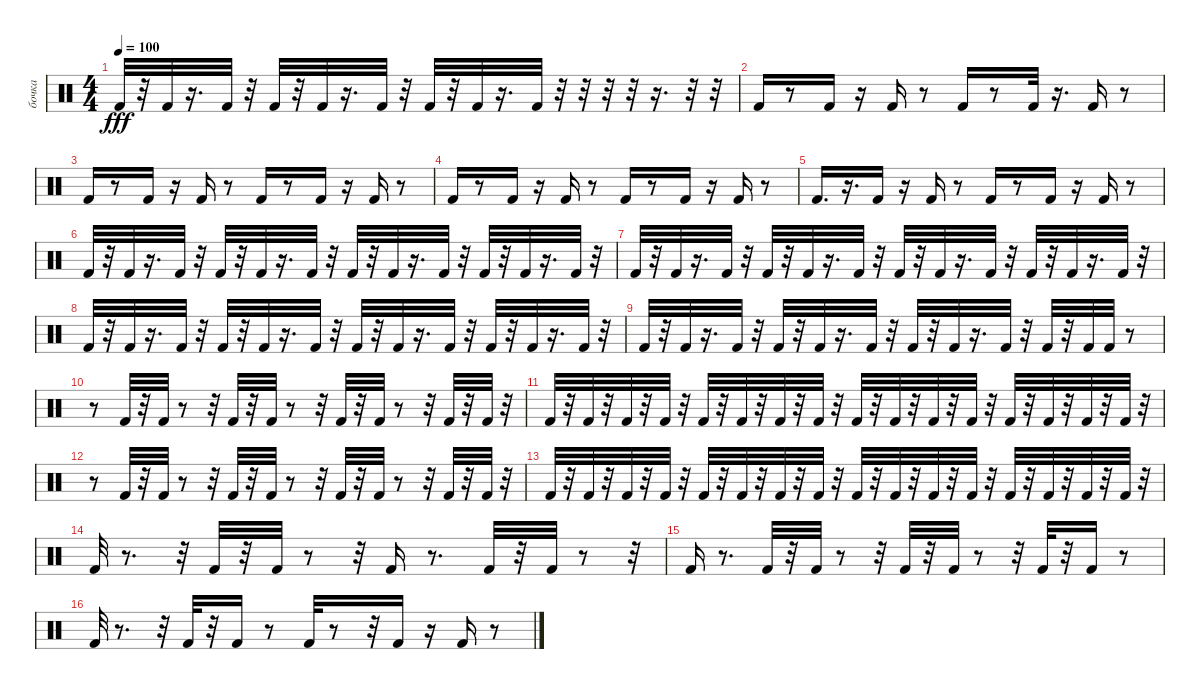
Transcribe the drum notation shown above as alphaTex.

\track ("бочка" "бочка") {instrument percussion}
\staff {score}
\articulation defaults
\ts (4 4)
\tempo 100
\clef neutral
\ks c "Kick (hit) 2".32{dy fff}
r.32 "Kick (hit) 2".32 r.16{d} "Kick (hit) 2".32 r.32 "Kick (hit) 2".32 r.32 "Kick (hit) 2".32 r.16{d} "Kick (hit) 2".32 r.32 "Kick (hit) 2".32 r.32 "Kick (hit) 2".32 r.16{d} "Kick (hit) 2".32 r.32 r.32 r.32 r.32 r.16{d} r.32 r.32 |
"Kick (hit) 2".16 r.8 "Kick (hit) 2".16 r.16 "Kick (hit) 2".16 r.8 "Kick (hit) 2".16 r.8 "Kick (hit) 2".32 r.16{d} "Kick (hit) 2".16 r.8 |
"Kick (hit) 2".16 r.8 "Kick (hit) 2".16 r.16 "Kick (hit) 2".16 r.8 "Kick (hit) 2".16 r.8 "Kick (hit) 2".16 r.16 "Kick (hit) 2".16 r.8 |
"Kick (hit) 2".16 r.8 "Kick (hit) 2".16 r.16 "Kick (hit) 2".16 r.8 "Kick (hit) 2".16 r.8 "Kick (hit) 2".16 r.16 "Kick (hit) 2".16 r.8 |
"Kick (hit) 2".16{d} r.16{d} "Kick (hit) 2".16 r.16 "Kick (hit) 2".16 r.8 "Kick (hit) 2".16 r.8 "Kick (hit) 2".16 r.16 "Kick (hit) 2".16 r.8 |
"Kick (hit) 2".32 r.32 "Kick (hit) 2".32 r.16{d} "Kick (hit) 2".32 r.32 "Kick (hit) 2".32 r.32 "Kick (hit) 2".32 r.16{d} "Kick (hit) 2".32 r.32 "Kick (hit) 2".32 r.32 "Kick (hit) 2".32 r.16{d} "Kick (hit) 2".32 r.32 "Kick (hit) 2".32 r.32 "Kick (hit) 2".32 r.16{d} "Kick (hit) 2".32 r.32 |
"Kick (hit) 2".32 r.32 "Kick (hit) 2".32 r.16{d} "Kick (hit) 2".32 r.32 "Kick (hit) 2".32 r.32 "Kick (hit) 2".32 r.16{d} "Kick (hit) 2".32 r.32 "Kick (hit) 2".32 r.32 "Kick (hit) 2".32 r.16{d} "Kick (hit) 2".32 r.32 "Kick (hit) 2".32 r.32 "Kick (hit) 2".32 r.16{d} "Kick (hit) 2".32 r.32 |
"Kick (hit) 2".32 r.32 "Kick (hit) 2".32 r.16{d} "Kick (hit) 2".32 r.32 "Kick (hit) 2".32 r.32 "Kick (hit) 2".32 r.16{d} "Kick (hit) 2".32 r.32 "Kick (hit) 2".32 r.32 "Kick (hit) 2".32 r.16{d} "Kick (hit) 2".32 r.32 "Kick (hit) 2".32 r.32 "Kick (hit) 2".32 r.16{d} "Kick (hit) 2".32 r.32 |
"Kick (hit) 2".32 r.32 "Kick (hit) 2".32 r.16{d} "Kick (hit) 2".32 r.32 "Kick (hit) 2".32 r.32 "Kick (hit) 2".32 r.16{d} "Kick (hit) 2".32 r.32 "Kick (hit) 2".32 r.32 "Kick (hit) 2".32 r.16{d} "Kick (hit) 2".32 r.32 "Kick (hit) 2".32 r.32 "Kick (hit) 2".32 "Kick (hit) 2".32 r.8 |
r.8 "Kick (hit) 2".32 r.32 "Kick (hit) 2".32 r.8 r.32 "Kick (hit) 2".32 r.32 "Kick (hit) 2".32 r.8 r.32 "Kick (hit) 2".32 r.32 "Kick (hit) 2".32 r.8 r.32 "Kick (hit) 2".32 r.32 "Kick (hit) 2".32 r.32 |
"Kick (hit) 2".32 r.32 "Kick (hit) 2".32 r.32 "Kick (hit) 2".32 r.32 "Kick (hit) 2".32 r.32 "Kick (hit) 2".32 r.32 "Kick (hit) 2".32 r.32 "Kick (hit) 2".32 r.32 "Kick (hit) 2".32 r.32 "Kick (hit) 2".32 r.32 "Kick (hit) 2".32 r.32 "Kick (hit) 2".32 r.32 "Kick (hit) 2".32 r.32 "Kick (hit) 2".32 r.32 "Kick (hit) 2".32 r.32 "Kick (hit) 2".32 r.32 "Kick (hit) 2".32 r.32 |
r.8 "Kick (hit) 2".32 r.32 "Kick (hit) 2".32 r.8 r.32 "Kick (hit) 2".32 r.32 "Kick (hit) 2".32 r.8 r.32 "Kick (hit) 2".32 r.32 "Kick (hit) 2".32 r.8 r.32 "Kick (hit) 2".32 r.32 "Kick (hit) 2".32 r.32 |
"Kick (hit) 2".32 r.32 "Kick (hit) 2".32 r.32 "Kick (hit) 2".32 r.32 "Kick (hit) 2".32 r.32 "Kick (hit) 2".32 r.32 "Kick (hit) 2".32 r.32 "Kick (hit) 2".32 r.32 "Kick (hit) 2".32 r.32 "Kick (hit) 2".32 r.32 "Kick (hit) 2".32 r.32 "Kick (hit) 2".32 r.32 "Kick (hit) 2".32 r.32 "Kick (hit) 2".32 r.32 "Kick (hit) 2".32 r.32 "Kick (hit) 2".32 r.32 "Kick (hit) 2".32 r.32 |
"Kick (hit) 2".32 r.8{d} r.32 "Kick (hit) 2".32 r.32 "Kick (hit) 2".32 r.8 r.32 "Kick (hit) 2".16 r.8{d} "Kick (hit) 2".32 r.32 "Kick (hit) 2".32 r.8 r.32 |
"Kick (hit) 2".16 r.8{d} "Kick (hit) 2".32 r.32 "Kick (hit) 2".32 r.8 r.32 "Kick (hit) 2".32 r.32 "Kick (hit) 2".32 r.8 r.32 "Kick (hit) 2".32 r.32 "Kick (hit) 2".16 r.8 |
"Kick (hit) 2".32 r.8{d} r.32 "Kick (hit) 2".32 r.32 "Kick (hit) 2".16 r.8 "Kick (hit) 2".32 r.8 r.32 "Kick (hit) 2".16 r.16 "Kick (hit) 2".16 r.8
